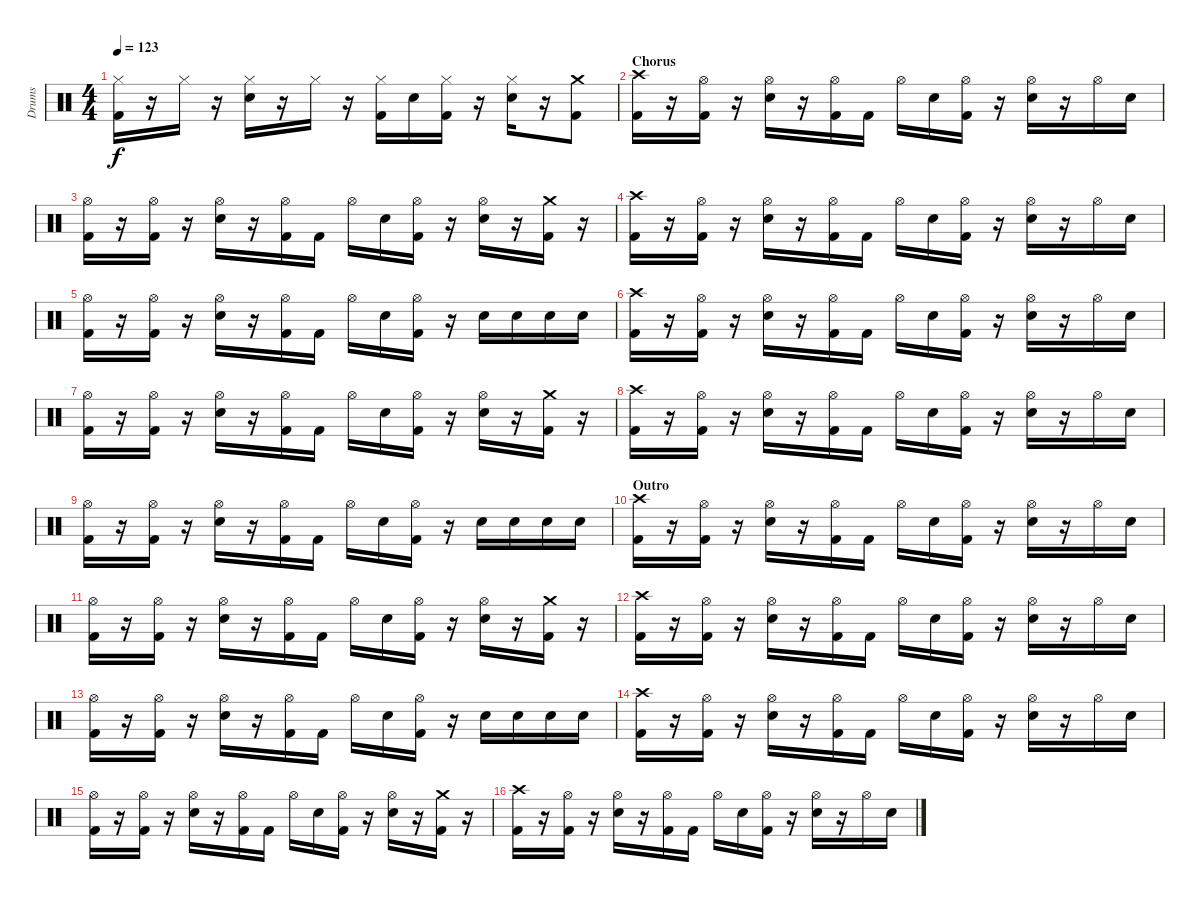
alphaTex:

\track ("Drums" "Drums") {instrument percussion}
\staff {score}
\articulation defaults
\ts (4 4)
\tempo 123
\clef neutral
\ks c
("Hi-Hat (closed)" "Kick (hit) 2").16{dy f} r.16 "Hi-Hat (closed)".16 r.16 ("Hi-Hat (closed)" "Electric Snare (hit)").16 r.16 "Hi-Hat (closed)".16 r.16 ("Hi-Hat (closed)" "Kick (hit) 2").16 "Electric Snare (hit)".16 ("Hi-Hat (closed)" "Kick (hit) 2").16 r.16 ("Hi-Hat (closed)" "Electric Snare (hit)").16 r.16 ("Crash medium (hit)" "Kick (hit) 2").8 |
\section ("" "Chorus")
("Crash high (hit)" "Kick (hit) 2").16 r.16 ("Hi-Hat (open)" "Kick (hit) 2").16 r.16 ("Hi-Hat (open)" "Electric Snare (hit)").16 r.16 ("Hi-Hat (open)" "Kick (hit) 2").16 "Kick (hit) 2".16 "Hi-Hat (open)".16 "Electric Snare (hit)".16 ("Hi-Hat (open)" "Kick (hit) 2").16 r.16 ("Hi-Hat (open)" "Electric Snare (hit)").16 r.16 "Hi-Hat (open)".16 "Electric Snare (hit)".16 |
("Hi-Hat (open)" "Kick (hit) 2").16 r.16 ("Hi-Hat (open)" "Kick (hit) 2").16 r.16 ("Hi-Hat (open)" "Electric Snare (hit)").16 r.16 ("Hi-Hat (open)" "Kick (hit) 2").16 "Kick (hit) 2".16 "Hi-Hat (open)".16 "Electric Snare (hit)".16 ("Hi-Hat (open)" "Kick (hit) 2").16 r.16 ("Hi-Hat (open)" "Electric Snare (hit)").16 r.16 ("Crash medium (hit)" "Kick (hit) 2").16 r.16 |
("Crash high (hit)" "Kick (hit) 2").16 r.16 ("Hi-Hat (open)" "Kick (hit) 2").16 r.16 ("Hi-Hat (open)" "Electric Snare (hit)").16 r.16 ("Hi-Hat (open)" "Kick (hit) 2").16 "Kick (hit) 2".16 "Hi-Hat (open)".16 "Electric Snare (hit)".16 ("Hi-Hat (open)" "Kick (hit) 2").16 r.16 ("Hi-Hat (open)" "Electric Snare (hit)").16 r.16 "Hi-Hat (open)".16 "Electric Snare (hit)".16 |
("Hi-Hat (open)" "Kick (hit) 2").16 r.16 ("Hi-Hat (open)" "Kick (hit) 2").16 r.16 ("Hi-Hat (open)" "Electric Snare (hit)").16 r.16 ("Hi-Hat (open)" "Kick (hit) 2").16 "Kick (hit) 2".16 "Hi-Hat (open)".16 "Electric Snare (hit)".16 ("Hi-Hat (open)" "Kick (hit) 2").16 r.16 "Electric Snare (hit)".16 "Electric Snare (hit)".16 "Electric Snare (hit)".16 "Electric Snare (hit)".16 |
("Crash high (hit)" "Kick (hit) 2").16 r.16 ("Hi-Hat (open)" "Kick (hit) 2").16 r.16 ("Hi-Hat (open)" "Electric Snare (hit)").16 r.16 ("Hi-Hat (open)" "Kick (hit) 2").16 "Kick (hit) 2".16 "Hi-Hat (open)".16 "Electric Snare (hit)".16 ("Hi-Hat (open)" "Kick (hit) 2").16 r.16 ("Hi-Hat (open)" "Electric Snare (hit)").16 r.16 "Hi-Hat (open)".16 "Electric Snare (hit)".16 |
("Hi-Hat (open)" "Kick (hit) 2").16 r.16 ("Hi-Hat (open)" "Kick (hit) 2").16 r.16 ("Hi-Hat (open)" "Electric Snare (hit)").16 r.16 ("Hi-Hat (open)" "Kick (hit) 2").16 "Kick (hit) 2".16 "Hi-Hat (open)".16 "Electric Snare (hit)".16 ("Hi-Hat (open)" "Kick (hit) 2").16 r.16 ("Hi-Hat (open)" "Electric Snare (hit)").16 r.16 ("Crash medium (hit)" "Kick (hit) 2").16 r.16 |
("Crash high (hit)" "Kick (hit) 2").16 r.16 ("Hi-Hat (open)" "Kick (hit) 2").16 r.16 ("Hi-Hat (open)" "Electric Snare (hit)").16 r.16 ("Hi-Hat (open)" "Kick (hit) 2").16 "Kick (hit) 2".16 "Hi-Hat (open)".16 "Electric Snare (hit)".16 ("Hi-Hat (open)" "Kick (hit) 2").16 r.16 ("Hi-Hat (open)" "Electric Snare (hit)").16 r.16 "Hi-Hat (open)".16 "Electric Snare (hit)".16 |
("Hi-Hat (open)" "Kick (hit) 2").16 r.16 ("Hi-Hat (open)" "Kick (hit) 2").16 r.16 ("Hi-Hat (open)" "Electric Snare (hit)").16 r.16 ("Hi-Hat (open)" "Kick (hit) 2").16 "Kick (hit) 2".16 "Hi-Hat (open)".16 "Electric Snare (hit)".16 ("Hi-Hat (open)" "Kick (hit) 2").16 r.16 "Electric Snare (hit)".16 "Electric Snare (hit)".16 "Electric Snare (hit)".16 "Electric Snare (hit)".16 |
\section ("" "Outro")
("Crash high (hit)" "Kick (hit) 2").16 r.16 ("Hi-Hat (open)" "Kick (hit) 2").16 r.16 ("Hi-Hat (open)" "Electric Snare (hit)").16 r.16 ("Hi-Hat (open)" "Kick (hit) 2").16 "Kick (hit) 2".16 "Hi-Hat (open)".16 "Electric Snare (hit)".16 ("Hi-Hat (open)" "Kick (hit) 2").16 r.16 ("Hi-Hat (open)" "Electric Snare (hit)").16 r.16 "Hi-Hat (open)".16 "Electric Snare (hit)".16 |
("Hi-Hat (open)" "Kick (hit) 2").16 r.16 ("Hi-Hat (open)" "Kick (hit) 2").16 r.16 ("Hi-Hat (open)" "Electric Snare (hit)").16 r.16 ("Hi-Hat (open)" "Kick (hit) 2").16 "Kick (hit) 2".16 "Hi-Hat (open)".16 "Electric Snare (hit)".16 ("Hi-Hat (open)" "Kick (hit) 2").16 r.16 ("Hi-Hat (open)" "Electric Snare (hit)").16 r.16 ("Crash medium (hit)" "Kick (hit) 2").16 r.16 |
("Crash high (hit)" "Kick (hit) 2").16 r.16 ("Hi-Hat (open)" "Kick (hit) 2").16 r.16 ("Hi-Hat (open)" "Electric Snare (hit)").16 r.16 ("Hi-Hat (open)" "Kick (hit) 2").16 "Kick (hit) 2".16 "Hi-Hat (open)".16 "Electric Snare (hit)".16 ("Hi-Hat (open)" "Kick (hit) 2").16 r.16 ("Hi-Hat (open)" "Electric Snare (hit)").16 r.16 "Hi-Hat (open)".16 "Electric Snare (hit)".16 |
("Hi-Hat (open)" "Kick (hit) 2").16 r.16 ("Hi-Hat (open)" "Kick (hit) 2").16 r.16 ("Hi-Hat (open)" "Electric Snare (hit)").16 r.16 ("Hi-Hat (open)" "Kick (hit) 2").16 "Kick (hit) 2".16 "Hi-Hat (open)".16 "Electric Snare (hit)".16 ("Hi-Hat (open)" "Kick (hit) 2").16 r.16 "Electric Snare (hit)".16 "Electric Snare (hit)".16 "Electric Snare (hit)".16 "Electric Snare (hit)".16 |
("Crash high (hit)" "Kick (hit) 2").16 r.16 ("Hi-Hat (open)" "Kick (hit) 2").16 r.16 ("Hi-Hat (open)" "Electric Snare (hit)").16 r.16 ("Hi-Hat (open)" "Kick (hit) 2").16 "Kick (hit) 2".16 "Hi-Hat (open)".16 "Electric Snare (hit)".16 ("Hi-Hat (open)" "Kick (hit) 2").16 r.16 ("Hi-Hat (open)" "Electric Snare (hit)").16 r.16 "Hi-Hat (open)".16 "Electric Snare (hit)".16 |
("Hi-Hat (open)" "Kick (hit) 2").16 r.16 ("Hi-Hat (open)" "Kick (hit) 2").16 r.16 ("Hi-Hat (open)" "Electric Snare (hit)").16 r.16 ("Hi-Hat (open)" "Kick (hit) 2").16 "Kick (hit) 2".16 "Hi-Hat (open)".16 "Electric Snare (hit)".16 ("Hi-Hat (open)" "Kick (hit) 2").16 r.16 ("Hi-Hat (open)" "Electric Snare (hit)").16 r.16 ("Crash medium (hit)" "Kick (hit) 2").16 r.16 |
("Crash high (hit)" "Kick (hit) 2").16 r.16 ("Hi-Hat (open)" "Kick (hit) 2").16 r.16 ("Hi-Hat (open)" "Electric Snare (hit)").16 r.16 ("Hi-Hat (open)" "Kick (hit) 2").16 "Kick (hit) 2".16 "Hi-Hat (open)".16 "Electric Snare (hit)".16 ("Hi-Hat (open)" "Kick (hit) 2").16 r.16 ("Hi-Hat (open)" "Electric Snare (hit)").16 r.16 "Hi-Hat (open)".16 "Electric Snare (hit)".16
